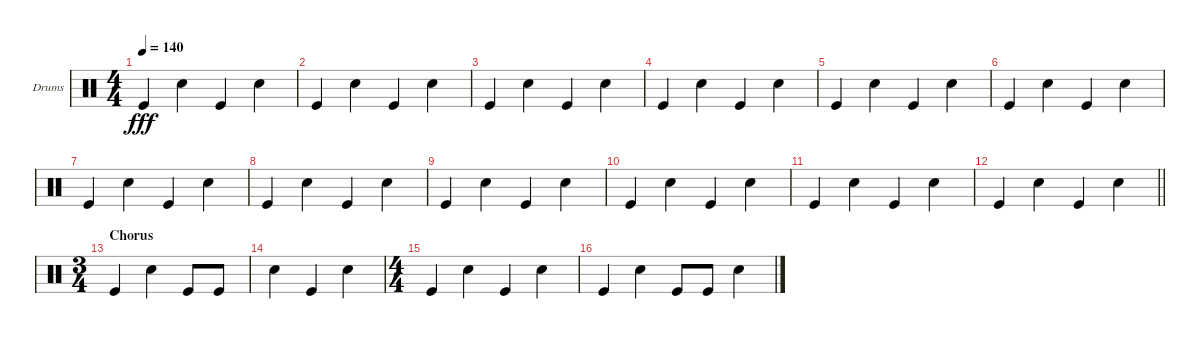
\bracketExtendMode groupsimilarinstruments
\firstSystemTrackNameOrientation horizontal
\otherSystemsTrackNameOrientation horizontal
\track ("Drumkit" "Drums") {instrument percussion}
\staff {score}
\articulation defaults
\ts (4 4)
\tempo 140
\clef neutral
\ks c "Kick (hit)".4{dy fff} "Snare (hit) 2".4 "Kick (hit)".4 "Snare (hit) 2".4
|
"Kick (hit)".4 "Snare (hit) 2".4 "Kick (hit)".4 "Snare (hit) 2".4 |
"Kick (hit)".4 "Snare (hit) 2".4 "Kick (hit)".4 "Snare (hit) 2".4 |
"Kick (hit)".4 "Snare (hit) 2".4 "Kick (hit)".4 "Snare (hit) 2".4 |
"Kick (hit)".4 "Snare (hit) 2".4 "Kick (hit)".4 "Snare (hit) 2".4 |
"Kick (hit)".4 "Snare (hit) 2".4 "Kick (hit)".4 "Snare (hit) 2".4 |
"Kick (hit)".4 "Snare (hit) 2".4 "Kick (hit)".4 "Snare (hit) 2".4 |
"Kick (hit)".4 "Snare (hit) 2".4 "Kick (hit)".4 "Snare (hit) 2".4 |
"Kick (hit)".4 "Snare (hit) 2".4 "Kick (hit)".4 "Snare (hit) 2".4 |
"Kick (hit)".4 "Snare (hit) 2".4 "Kick (hit)".4 "Snare (hit) 2".4 |
"Kick (hit)".4 "Snare (hit) 2".4 "Kick (hit)".4 "Snare (hit) 2".4 |
\barLineRight lightlight "Kick (hit)".4 "Snare (hit) 2".4 "Kick (hit)".4 "Snare (hit) 2".4
|
\ts (3 4)
\beaming (8 2 2 2)
\section ("" "Chorus")
"Kick (hit)".4 "Snare (hit) 2".4 "Kick (hit)".8 "Kick (hit)".8 |
"Snare (hit) 2".4 "Kick (hit)".4 "Snare (hit) 2".4 |
\ts (4 4)
\beaming (8 2 2 2 2)
"Kick (hit)".4 "Snare (hit) 2".4 "Kick (hit)".4 "Snare (hit) 2".4 |
"Kick (hit)".4 "Snare (hit) 2".4 "Kick (hit)".8 "Kick (hit)".8 "Snare (hit) 2".4
